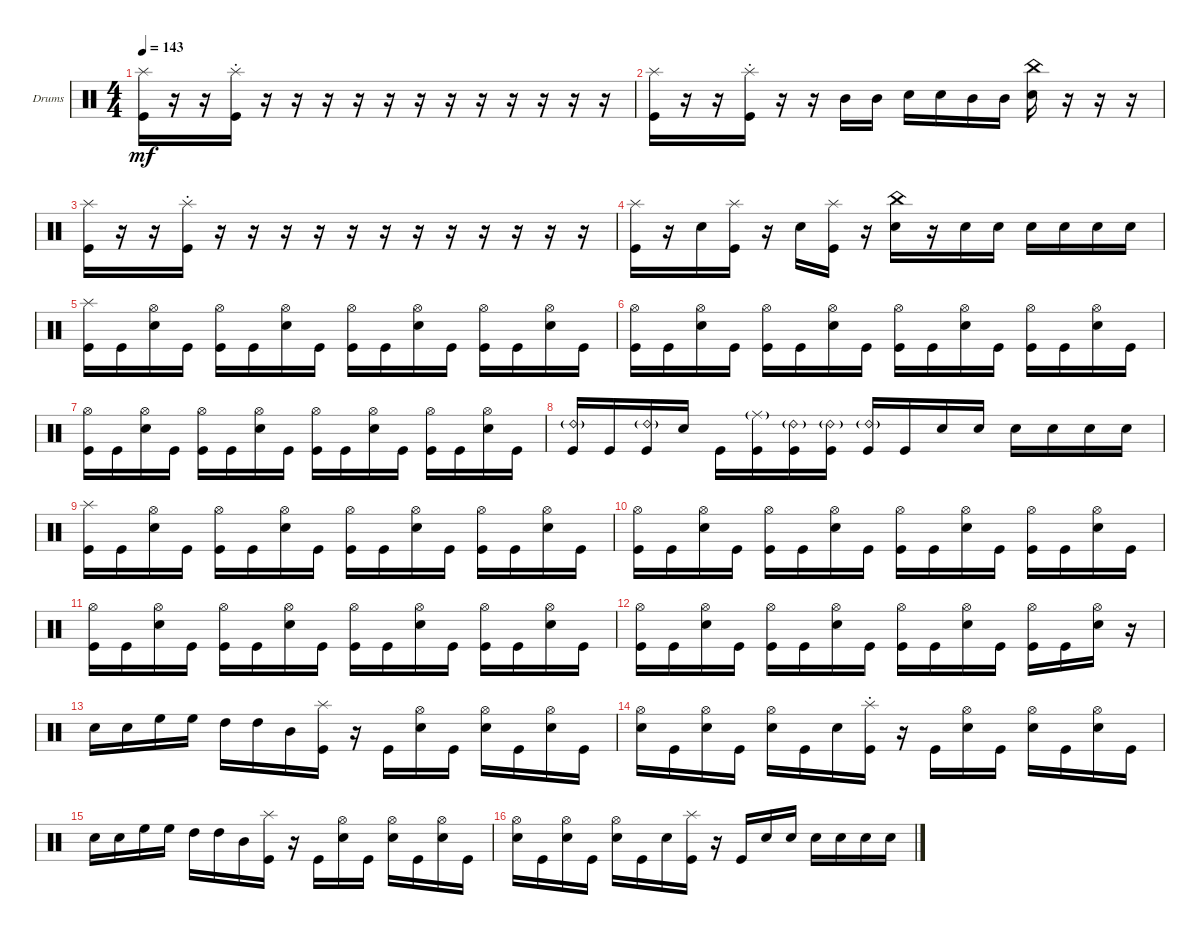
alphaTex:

\bracketExtendMode groupsimilarinstruments
\firstSystemTrackNameOrientation horizontal
\otherSystemsTrackNameOrientation horizontal
\track ("death drumz" "Drums") {instrument percussion}
\staff {score}
\articulation defaults
\ts (4 4)
\tempo 143
\clef neutral
\ks c
("Kick (hit)" "Splash (hit)").16{dy mf} r.16 r.16 ("Kick (hit)" "Splash (hit)"{st}).16 r.16 r.16 r.16 r.16 r.16 r.16 r.16 r.16 r.16 r.16 r.16 r.16 |
("Kick (hit)" "Splash (hit)").16 r.16 r.16 ("Kick (hit)" "Splash (hit)"{st}).16 r.16 r.16 "Mid Tom (hit)".16 "Mid Tom (hit)".16 "Snare (hit) 2".16 "Snare (hit) 2".16 "Mid Tom (hit)".16 "Mid Tom (hit)".16 ("Snare (hit) 2" "China (hit)").16 r.16 r.16 r.16 |
("Kick (hit)" "Splash (hit)").16 r.16 r.16 ("Kick (hit)" "Splash (hit)"{st}).16 r.16 r.16 r.16 r.16 r.16 r.16 r.16 r.16 r.16 r.16 r.16 r.16 |
("Kick (hit)" "Splash (hit)").16 r.16 "Snare (hit) 2".16 ("Kick (hit)" "Splash (hit)").16 r.16 "Snare (hit) 2".16 ("Kick (hit)" "Splash (hit)").16 r.16 ("Snare (hit) 2" "China (hit)").16 r.16 "Snare (hit) 2".16 "Snare (hit) 2".16 "Snare (hit) 2".16 "Snare (hit) 2".16 "Snare (hit) 2".16 "Snare (hit) 2".16 |
("Kick (hit)" "Splash (hit)").16 "Kick (hit)".16 ("Snare (hit) 2" "Hi-Hat (open)").16 "Kick (hit)".16 ("Kick (hit)" "Hi-Hat (open)").16 "Kick (hit)".16 ("Snare (hit) 2" "Hi-Hat (open)").16 "Kick (hit)".16 ("Kick (hit)" "Hi-Hat (open)").16 "Kick (hit)".16 ("Snare (hit) 2" "Hi-Hat (open)").16 "Kick (hit)".16 ("Kick (hit)" "Hi-Hat (open)").16 "Kick (hit)".16 ("Snare (hit) 2" "Hi-Hat (open)").16 "Kick (hit)".16 |
("Kick (hit)" "Hi-Hat (open)").16 "Kick (hit)".16 ("Snare (hit) 2" "Hi-Hat (open)").16 "Kick (hit)".16 ("Kick (hit)" "Hi-Hat (open)").16 "Kick (hit)".16 ("Snare (hit) 2" "Hi-Hat (open)").16 "Kick (hit)".16 ("Kick (hit)" "Hi-Hat (open)").16 "Kick (hit)".16 ("Snare (hit) 2" "Hi-Hat (open)").16 "Kick (hit)".16 ("Kick (hit)" "Hi-Hat (open)").16 "Kick (hit)".16 ("Snare (hit) 2" "Hi-Hat (open)").16 "Kick (hit)".16 |
("Kick (hit)" "Hi-Hat (open)").16 "Kick (hit)".16 ("Snare (hit) 2" "Hi-Hat (open)").16 "Kick (hit)".16 ("Kick (hit)" "Hi-Hat (open)").16 "Kick (hit)".16 ("Snare (hit) 2" "Hi-Hat (open)").16 "Kick (hit)".16 ("Kick (hit)" "Hi-Hat (open)").16 "Kick (hit)".16 ("Snare (hit) 2" "Hi-Hat (open)").16 "Kick (hit)".16 ("Kick (hit)" "Hi-Hat (open)").16 "Kick (hit)".16 ("Snare (hit) 2" "Hi-Hat (open)").16 "Kick (hit)".16 |
("Ride (bell) 2"{g} "Kick (hit)").16 "Kick (hit)".16 ("Ride (bell) 2"{g} "Kick (hit)").16 "Snare (hit) 2".16 "Kick (hit)".16 ("Ride (middle)"{g} "Kick (hit)").16 ("Ride (bell) 2"{g} "Kick (hit)").16 ("Ride (bell) 2"{g} "Kick (hit)").16 ("Ride (bell) 2"{g} "Kick (hit)").16 "Kick (hit)".16 "Snare (hit) 2".16 "Snare (hit) 2".16 "Snare (hit) 2".16 "Snare (hit) 2".16 "Snare (hit) 2".16 "Snare (hit) 2".16 |
("Kick (hit)" "Splash (hit)").16 "Kick (hit)".16 ("Snare (hit) 2" "Hi-Hat (open)").16 "Kick (hit)".16 ("Kick (hit)" "Hi-Hat (open)").16 "Kick (hit)".16 ("Snare (hit) 2" "Hi-Hat (open)").16 "Kick (hit)".16 ("Kick (hit)" "Hi-Hat (open)").16 "Kick (hit)".16 ("Snare (hit) 2" "Hi-Hat (open)").16 "Kick (hit)".16 ("Kick (hit)" "Hi-Hat (open)").16 "Kick (hit)".16 ("Snare (hit) 2" "Hi-Hat (open)").16 "Kick (hit)".16 |
("Kick (hit)" "Hi-Hat (open)").16 "Kick (hit)".16 ("Snare (hit) 2" "Hi-Hat (open)").16 "Kick (hit)".16 ("Kick (hit)" "Hi-Hat (open)").16 "Kick (hit)".16 ("Snare (hit) 2" "Hi-Hat (open)").16 "Kick (hit)".16 ("Kick (hit)" "Hi-Hat (open)").16 "Kick (hit)".16 ("Snare (hit) 2" "Hi-Hat (open)").16 "Kick (hit)".16 ("Kick (hit)" "Hi-Hat (open)").16 "Kick (hit)".16 ("Snare (hit) 2" "Hi-Hat (open)").16 "Kick (hit)".16 |
("Kick (hit)" "Hi-Hat (open)").16 "Kick (hit)".16 ("Snare (hit) 2" "Hi-Hat (open)").16 "Kick (hit)".16 ("Kick (hit)" "Hi-Hat (open)").16 "Kick (hit)".16 ("Snare (hit) 2" "Hi-Hat (open)").16 "Kick (hit)".16 ("Kick (hit)" "Hi-Hat (open)").16 "Kick (hit)".16 ("Snare (hit) 2" "Hi-Hat (open)").16 "Kick (hit)".16 ("Kick (hit)" "Hi-Hat (open)").16 "Kick (hit)".16 ("Snare (hit) 2" "Hi-Hat (open)").16 "Kick (hit)".16 |
("Kick (hit)" "Hi-Hat (open)").16 "Kick (hit)".16 ("Snare (hit) 2" "Hi-Hat (open)").16 "Kick (hit)".16 ("Kick (hit)" "Hi-Hat (open)").16 "Kick (hit)".16 ("Snare (hit) 2" "Hi-Hat (open)").16 "Kick (hit)".16 ("Kick (hit)" "Hi-Hat (open)").16 "Kick (hit)".16 ("Snare (hit) 2" "Hi-Hat (open)").16 "Kick (hit)".16 ("Kick (hit)" "Hi-Hat (open)").16 "Kick (hit)".16 ("Snare (hit) 2" "Hi-Hat (open)").16 r.16 |
"Snare (hit) 2".16 "Snare (hit) 2".16 "High Floor Tom (hit)".16 "High Floor Tom (hit)".16 "High Tom (hit)".16 "High Tom (hit)".16 "Mid Tom (hit)".16 ("Kick (hit)" "Splash (hit)").16 r.16 "Kick (hit)".16 ("Snare (hit) 2" "Hi-Hat (open)").16 "Kick (hit)".16 ("Snare (hit) 2" "Hi-Hat (open)").16 "Kick (hit)".16 ("Snare (hit) 2" "Hi-Hat (open)").16 "Kick (hit)".16 |
("Snare (hit) 2" "Hi-Hat (open)").16 "Kick (hit)".16 ("Snare (hit) 2" "Hi-Hat (open)").16 "Kick (hit)".16 ("Snare (hit) 2" "Hi-Hat (open)").16 "Kick (hit)".16 "Snare (hit) 2".16 ("Kick (hit)" "Splash (hit)"{st}).16 r.16 "Kick (hit)".16 ("Snare (hit) 2" "Hi-Hat (open)").16 "Kick (hit)".16 ("Snare (hit) 2" "Hi-Hat (open)").16 "Kick (hit)".16 ("Snare (hit) 2" "Hi-Hat (open)").16 "Kick (hit)".16 |
"Snare (hit) 2".16 "Snare (hit) 2".16 "High Floor Tom (hit)".16 "High Floor Tom (hit)".16 "High Tom (hit)".16 "High Tom (hit)".16 "Mid Tom (hit)".16 ("Kick (hit)" "Splash (hit)").16 r.16 "Kick (hit)".16 ("Snare (hit) 2" "Hi-Hat (open)").16 "Kick (hit)".16 ("Snare (hit) 2" "Hi-Hat (open)").16 "Kick (hit)".16 ("Snare (hit) 2" "Hi-Hat (open)").16 "Kick (hit)".16 |
("Snare (hit) 2" "Hi-Hat (open)").16 "Kick (hit)".16 ("Snare (hit) 2" "Hi-Hat (open)").16 "Kick (hit)".16 ("Snare (hit) 2" "Hi-Hat (open)").16 "Kick (hit)".16 "Snare (hit) 2".16 ("Kick (hit)" "Splash (hit)").16 r.16 "Kick (hit)".16 "Snare (hit) 2".16 "Snare (hit) 2".16 "Snare (hit) 2".16 "Snare (hit) 2".16 "Snare (hit) 2".16 "Snare (hit) 2".16
